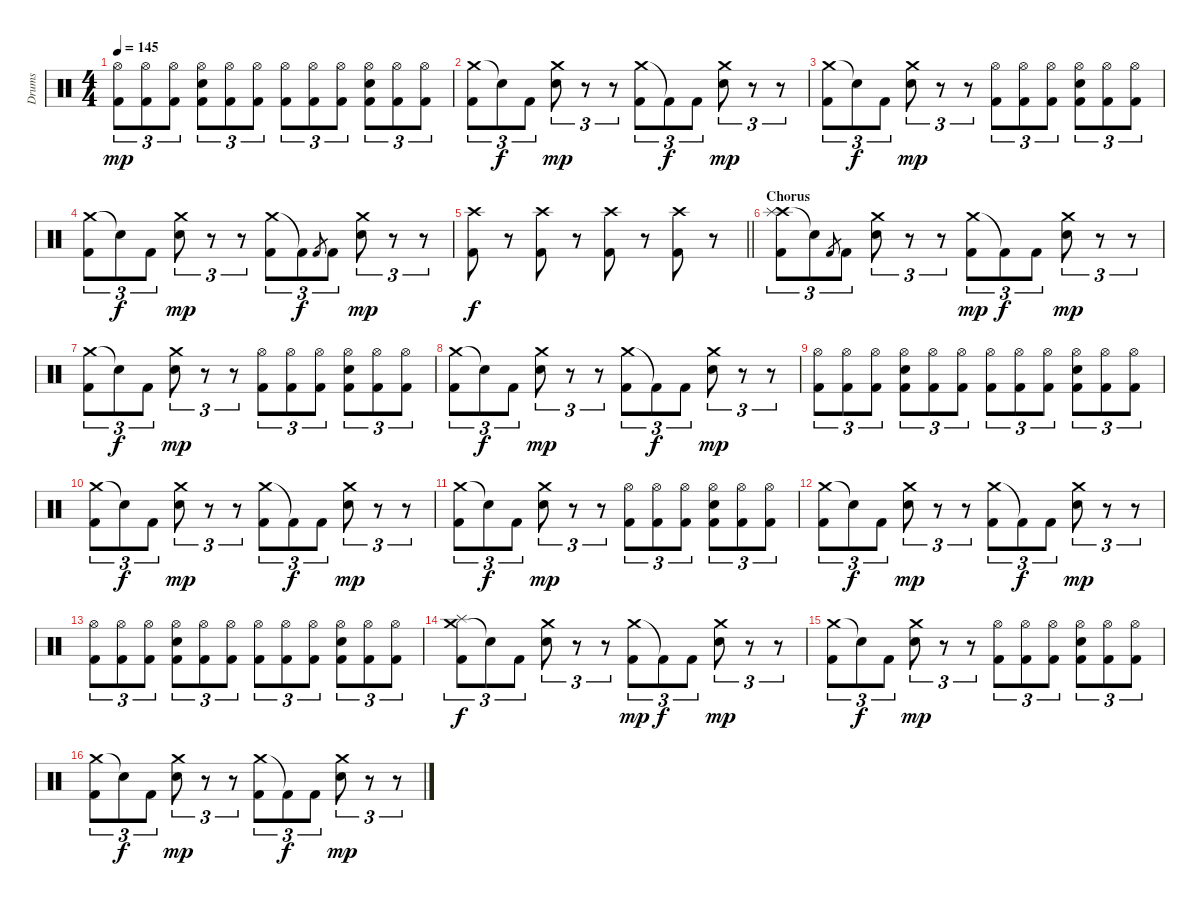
\track ("Drums" "Drums") {instrument percussion}
\staff {score}
\articulation defaults
\ts (4 4)
\tempo 145
\clef neutral
\ks c
("Hi-Hat (open)" "Kick (hit) 2").8{tu (3 2) dy mp} ("Hi-Hat (open)" "Kick (hit) 2").8{tu (3 2)} ("Hi-Hat (open)" "Kick (hit) 2").8{tu (3 2)} ("Hi-Hat (open)" "Snare (hit) 2" "Kick (hit) 2").8{tu (3 2)} ("Hi-Hat (open)" "Kick (hit) 2").8{tu (3 2)} ("Hi-Hat (open)" "Kick (hit) 2").8{tu (3 2)} ("Hi-Hat (open)" "Kick (hit) 2").8{tu (3 2)} ("Hi-Hat (open)" "Kick (hit) 2").8{tu (3 2)} ("Hi-Hat (open)" "Kick (hit) 2").8{tu (3 2)} ("Hi-Hat (open)" "Snare (hit) 2" "Kick (hit) 2").8{tu (3 2)} ("Hi-Hat (open)" "Kick (hit) 2").8{tu (3 2)} ("Hi-Hat (open)" "Kick (hit) 2").8{tu (3 2)} |
("Crash medium (hit)" "Kick (hit) 2").8{tu (3 2)} "Snare (hit)"{t}.8{tu (3 2) dy f} "Kick (hit) 2".8{tu (3 2)} ("Crash medium (hit)" "Snare (hit) 2").8{tu (3 2) dy mp} r.8{tu (3 2)} r.8{tu (3 2)} ("Crash medium (hit)" "Kick (hit) 2").8{tu (3 2)} "Kick (hit) 2"{t}.8{tu (3 2) dy f} "Kick (hit) 2".8{tu (3 2)} ("Crash medium (hit)" "Snare (hit) 2").8{tu (3 2) dy mp} r.8{tu (3 2)} r.8{tu (3 2)} |
("Crash medium (hit)" "Kick (hit) 2").8{tu (3 2)} "Snare (hit)"{t}.8{tu (3 2) dy f} "Kick (hit) 2".8{tu (3 2)} ("Crash medium (hit)" "Snare (hit) 2").8{tu (3 2) dy mp} r.8{tu (3 2)} r.8{tu (3 2)} ("Hi-Hat (open)" "Kick (hit) 2").8{tu (3 2)} ("Hi-Hat (open)" "Kick (hit) 2").8{tu (3 2)} ("Hi-Hat (open)" "Kick (hit) 2").8{tu (3 2)} ("Hi-Hat (open)" "Snare (hit) 2" "Kick (hit) 2").8{tu (3 2)} ("Hi-Hat (open)" "Kick (hit) 2").8{tu (3 2)} ("Hi-Hat (open)" "Kick (hit) 2").8{tu (3 2)} |
("Crash medium (hit)" "Kick (hit) 2").8{tu (3 2)} "Snare (hit)"{t}.8{tu (3 2) dy f} "Kick (hit) 2".8{tu (3 2)} ("Crash medium (hit)" "Snare (hit) 2").8{tu (3 2) dy mp} r.8{tu (3 2)} r.8{tu (3 2)} ("Crash medium (hit)" "Kick (hit) 2").8{tu (3 2)} "Kick (hit) 2"{t}.8{tu (3 2) dy f} "Kick (hit) 2".8{gr} "Kick (hit) 2".8{tu (3 2)} ("Crash medium (hit)" "Snare (hit) 2").8{tu (3 2) dy mp} r.8{tu (3 2)} r.8{tu (3 2)} |
\barLineRight lightlight
("Crash high (hit)" "Kick (hit) 2").8{dy f} r.8 ("Crash high (hit)" "Kick (hit) 2").8 r.8 ("Crash high (hit)" "Kick (hit) 2").8 r.8 ("Crash high (hit)" "Kick (hit) 2").8 r.8 |
\section ("" "Chorus")
("Crash high (hit)" "Splash (hit)" "Kick (hit) 2").8{tu (3 2)} "Snare (hit)"{t}.8{tu (3 2)} "Kick (hit) 2".8{gr} "Kick (hit) 2".8{tu (3 2)} ("Crash medium (hit)" "Snare (hit) 2").8{tu (3 2)} r.8{tu (3 2)} r.8{tu (3 2)} ("Crash medium (hit)" "Kick (hit) 2").8{tu (3 2) dy mp} "Kick (hit) 2"{t}.8{tu (3 2) dy f} "Kick (hit) 2".8{tu (3 2)} ("Crash medium (hit)" "Snare (hit) 2").8{tu (3 2) dy mp} r.8{tu (3 2)} r.8{tu (3 2)} |
("Crash medium (hit)" "Kick (hit) 2").8{tu (3 2)} "Snare (hit)"{t}.8{tu (3 2) dy f} "Kick (hit) 2".8{tu (3 2)} ("Crash medium (hit)" "Snare (hit) 2").8{tu (3 2) dy mp} r.8{tu (3 2)} r.8{tu (3 2)} ("Hi-Hat (open)" "Kick (hit) 2").8{tu (3 2)} ("Hi-Hat (open)" "Kick (hit) 2").8{tu (3 2)} ("Hi-Hat (open)" "Kick (hit) 2").8{tu (3 2)} ("Hi-Hat (open)" "Snare (hit) 2" "Kick (hit) 2").8{tu (3 2)} ("Hi-Hat (open)" "Kick (hit) 2").8{tu (3 2)} ("Hi-Hat (open)" "Kick (hit) 2").8{tu (3 2)} |
("Crash medium (hit)" "Kick (hit) 2").8{tu (3 2)} "Snare (hit)"{t}.8{tu (3 2) dy f} "Kick (hit) 2".8{tu (3 2)} ("Crash medium (hit)" "Snare (hit) 2").8{tu (3 2) dy mp} r.8{tu (3 2)} r.8{tu (3 2)} ("Crash medium (hit)" "Kick (hit) 2").8{tu (3 2)} "Kick (hit) 2"{t}.8{tu (3 2) dy f} "Kick (hit) 2".8{tu (3 2)} ("Crash medium (hit)" "Snare (hit) 2").8{tu (3 2) dy mp} r.8{tu (3 2)} r.8{tu (3 2)} |
("Hi-Hat (open)" "Kick (hit) 2").8{tu (3 2)} ("Hi-Hat (open)" "Kick (hit) 2").8{tu (3 2)} ("Hi-Hat (open)" "Kick (hit) 2").8{tu (3 2)} ("Hi-Hat (open)" "Snare (hit) 2" "Kick (hit) 2").8{tu (3 2)} ("Hi-Hat (open)" "Kick (hit) 2").8{tu (3 2)} ("Hi-Hat (open)" "Kick (hit) 2").8{tu (3 2)} ("Hi-Hat (open)" "Kick (hit) 2").8{tu (3 2)} ("Hi-Hat (open)" "Kick (hit) 2").8{tu (3 2)} ("Hi-Hat (open)" "Kick (hit) 2").8{tu (3 2)} ("Hi-Hat (open)" "Snare (hit) 2" "Kick (hit) 2").8{tu (3 2)} ("Hi-Hat (open)" "Kick (hit) 2").8{tu (3 2)} ("Hi-Hat (open)" "Kick (hit) 2").8{tu (3 2)} |
("Crash medium (hit)" "Kick (hit) 2").8{tu (3 2)} "Snare (hit)"{t}.8{tu (3 2) dy f} "Kick (hit) 2".8{tu (3 2)} ("Crash medium (hit)" "Snare (hit) 2").8{tu (3 2) dy mp} r.8{tu (3 2)} r.8{tu (3 2)} ("Crash medium (hit)" "Kick (hit) 2").8{tu (3 2)} "Kick (hit) 2"{t}.8{tu (3 2) dy f} "Kick (hit) 2".8{tu (3 2)} ("Crash medium (hit)" "Snare (hit) 2").8{tu (3 2) dy mp} r.8{tu (3 2)} r.8{tu (3 2)} |
("Crash medium (hit)" "Kick (hit) 2").8{tu (3 2)} "Snare (hit)"{t}.8{tu (3 2) dy f} "Kick (hit) 2".8{tu (3 2)} ("Crash medium (hit)" "Snare (hit) 2").8{tu (3 2) dy mp} r.8{tu (3 2)} r.8{tu (3 2)} ("Hi-Hat (open)" "Kick (hit) 2").8{tu (3 2)} ("Hi-Hat (open)" "Kick (hit) 2").8{tu (3 2)} ("Hi-Hat (open)" "Kick (hit) 2").8{tu (3 2)} ("Hi-Hat (open)" "Snare (hit) 2" "Kick (hit) 2").8{tu (3 2)} ("Hi-Hat (open)" "Kick (hit) 2").8{tu (3 2)} ("Hi-Hat (open)" "Kick (hit) 2").8{tu (3 2)} |
("Crash medium (hit)" "Kick (hit) 2").8{tu (3 2)} "Snare (hit)"{t}.8{tu (3 2) dy f} "Kick (hit) 2".8{tu (3 2)} ("Crash medium (hit)" "Snare (hit) 2").8{tu (3 2) dy mp} r.8{tu (3 2)} r.8{tu (3 2)} ("Crash medium (hit)" "Kick (hit) 2").8{tu (3 2)} "Kick (hit) 2"{t}.8{tu (3 2) dy f} "Kick (hit) 2".8{tu (3 2)} ("Crash medium (hit)" "Snare (hit) 2").8{tu (3 2) dy mp} r.8{tu (3 2)} r.8{tu (3 2)} |
("Hi-Hat (open)" "Kick (hit) 2").8{tu (3 2)} ("Hi-Hat (open)" "Kick (hit) 2").8{tu (3 2)} ("Hi-Hat (open)" "Kick (hit) 2").8{tu (3 2)} ("Hi-Hat (open)" "Snare (hit) 2" "Kick (hit) 2").8{tu (3 2)} ("Hi-Hat (open)" "Kick (hit) 2").8{tu (3 2)} ("Hi-Hat (open)" "Kick (hit) 2").8{tu (3 2)} ("Hi-Hat (open)" "Kick (hit) 2").8{tu (3 2)} ("Hi-Hat (open)" "Kick (hit) 2").8{tu (3 2)} ("Hi-Hat (open)" "Kick (hit) 2").8{tu (3 2)} ("Hi-Hat (open)" "Snare (hit) 2" "Kick (hit) 2").8{tu (3 2)} ("Hi-Hat (open)" "Kick (hit) 2").8{tu (3 2)} ("Hi-Hat (open)" "Kick (hit) 2").8{tu (3 2)} |
("Crash medium (hit)" "Splash (hit)" "Kick (hit) 2").8{tu (3 2) dy f} "Snare (hit)"{t}.8{tu (3 2)} "Kick (hit) 2".8{tu (3 2)} ("Crash medium (hit)" "Snare (hit) 2").8{tu (3 2)} r.8{tu (3 2)} r.8{tu (3 2)} ("Crash medium (hit)" "Kick (hit) 2").8{tu (3 2) dy mp} "Kick (hit) 2"{t}.8{tu (3 2) dy f} "Kick (hit) 2".8{tu (3 2)} ("Crash medium (hit)" "Snare (hit) 2").8{tu (3 2) dy mp} r.8{tu (3 2)} r.8{tu (3 2)} |
("Crash medium (hit)" "Kick (hit) 2").8{tu (3 2)} "Snare (hit)"{t}.8{tu (3 2) dy f} "Kick (hit) 2".8{tu (3 2)} ("Crash medium (hit)" "Snare (hit) 2").8{tu (3 2) dy mp} r.8{tu (3 2)} r.8{tu (3 2)} ("Hi-Hat (open)" "Kick (hit) 2").8{tu (3 2)} ("Hi-Hat (open)" "Kick (hit) 2").8{tu (3 2)} ("Hi-Hat (open)" "Kick (hit) 2").8{tu (3 2)} ("Hi-Hat (open)" "Snare (hit) 2" "Kick (hit) 2").8{tu (3 2)} ("Hi-Hat (open)" "Kick (hit) 2").8{tu (3 2)} ("Hi-Hat (open)" "Kick (hit) 2").8{tu (3 2)} |
("Crash medium (hit)" "Kick (hit) 2").8{tu (3 2)} "Snare (hit)"{t}.8{tu (3 2) dy f} "Kick (hit) 2".8{tu (3 2)} ("Crash medium (hit)" "Snare (hit) 2").8{tu (3 2) dy mp} r.8{tu (3 2)} r.8{tu (3 2)} ("Crash medium (hit)" "Kick (hit) 2").8{tu (3 2)} "Kick (hit) 2"{t}.8{tu (3 2) dy f} "Kick (hit) 2".8{tu (3 2)} ("Crash medium (hit)" "Snare (hit) 2").8{tu (3 2) dy mp} r.8{tu (3 2)} r.8{tu (3 2)}
